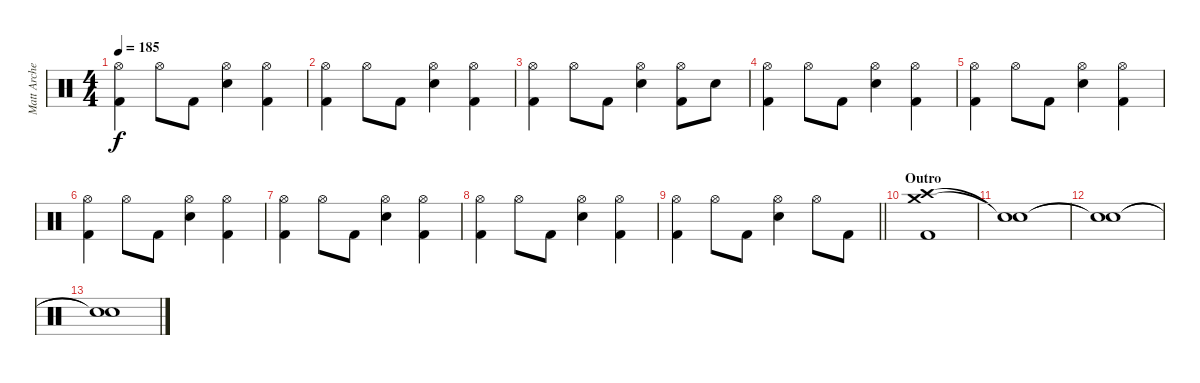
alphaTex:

\track ("Matt Archer" "Matt Arche") {instrument percussion}
\staff {score}
\articulation defaults
\ts (4 4)
\tempo 185
\clef neutral
\ks c
("Hi-Hat (open)" "Kick (hit) 2").4{dy f} "Hi-Hat (open)".8 "Kick (hit) 2".8 ("Hi-Hat (open)" "Snare (hit) 2").4 ("Hi-Hat (open)" "Kick (hit) 2").4 |
("Hi-Hat (open)" "Kick (hit) 2").4 "Hi-Hat (open)".8 "Kick (hit) 2".8 ("Hi-Hat (open)" "Snare (hit) 2").4 ("Hi-Hat (open)" "Kick (hit) 2").4 |
("Hi-Hat (open)" "Kick (hit) 2").4 "Hi-Hat (open)".8 "Kick (hit) 2".8 ("Hi-Hat (open)" "Snare (hit) 2").4 ("Hi-Hat (open)" "Kick (hit) 2").8 "Snare (hit) 2".8 |
("Hi-Hat (open)" "Kick (hit) 2").4 "Hi-Hat (open)".8 "Kick (hit) 2".8 ("Hi-Hat (open)" "Snare (hit) 2").4 ("Hi-Hat (open)" "Kick (hit) 2").4 |
("Hi-Hat (open)" "Kick (hit) 2").4 "Hi-Hat (open)".8 "Kick (hit) 2".8 ("Hi-Hat (open)" "Snare (hit) 2").4 ("Hi-Hat (open)" "Kick (hit) 2").4 |
("Hi-Hat (open)" "Kick (hit) 2").4 "Hi-Hat (open)".8 "Kick (hit) 2".8 ("Hi-Hat (open)" "Snare (hit) 2").4 ("Hi-Hat (open)" "Kick (hit) 2").4 |
("Hi-Hat (open)" "Kick (hit) 2").4 "Hi-Hat (open)".8 "Kick (hit) 2".8 ("Hi-Hat (open)" "Snare (hit) 2").4 ("Hi-Hat (open)" "Kick (hit) 2").4 |
("Hi-Hat (open)" "Kick (hit) 2").4 "Hi-Hat (open)".8 "Kick (hit) 2".8 ("Hi-Hat (open)" "Snare (hit) 2").4 ("Hi-Hat (open)" "Kick (hit) 2").4 |
\barLineRight lightlight
("Hi-Hat (open)" "Kick (hit) 2").4 "Hi-Hat (open)".8 "Kick (hit) 2".8 ("Hi-Hat (open)" "Snare (hit) 2").4 "Hi-Hat (open)".8 "Kick (hit) 2".8 |
\section ("" "Outro")
("Crash high (hit)" "Crash medium (hit)" "Kick (hit) 2").1{volume 0} |
("Snare (hit)"{t} "Snare (hit)"{t}).1 |
("Snare (hit)"{t} "Snare (hit)"{t}).1 |
("Snare (hit)"{t} "Snare (hit)"{t}).1
